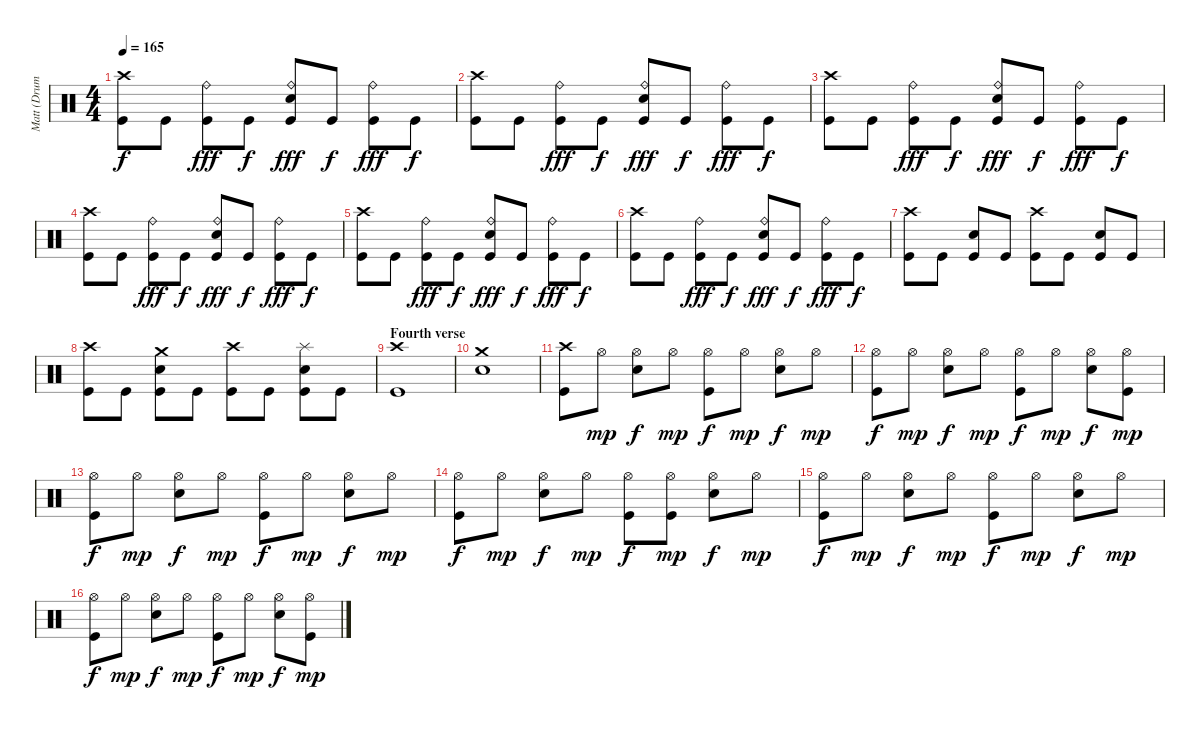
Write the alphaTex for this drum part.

\track ("Matt (Drums)" "Matt (Drum") {instrument percussion}
\staff {score}
\articulation defaults
\ts (4 4)
\tempo 165
\clef neutral
\ks c
("Crash high (hit)" "Kick (hit)").8{dy f} "Kick (hit)".8 ("Ride (bell)" "Kick (hit)").8{dy fff} "Kick (hit)".8{dy f} ("Ride (bell)" "Electric Snare (hit)" "Kick (hit)").8{dy fff} "Kick (hit)".8{dy f} ("Ride (bell)" "Kick (hit)").8{dy fff} "Kick (hit)".8{dy f} |
("Crash high (hit)" "Kick (hit)").8 "Kick (hit)".8 ("Ride (bell)" "Kick (hit)").8{dy fff} "Kick (hit)".8{dy f} ("Ride (bell)" "Electric Snare (hit)" "Kick (hit)").8{dy fff} "Kick (hit)".8{dy f} ("Ride (bell)" "Kick (hit)").8{dy fff} "Kick (hit)".8{dy f} |
("Crash high (hit)" "Kick (hit)").8 "Kick (hit)".8 ("Ride (bell)" "Kick (hit)").8{dy fff} "Kick (hit)".8{dy f} ("Ride (bell)" "Electric Snare (hit)" "Kick (hit)").8{dy fff} "Kick (hit)".8{dy f} ("Ride (bell)" "Kick (hit)").8{dy fff} "Kick (hit)".8{dy f} |
("Crash high (hit)" "Kick (hit)").8 "Kick (hit)".8 ("Ride (bell)" "Kick (hit)").8{dy fff} "Kick (hit)".8{dy f} ("Ride (bell)" "Electric Snare (hit)" "Kick (hit)").8{dy fff} "Kick (hit)".8{dy f} ("Ride (bell)" "Kick (hit)").8{dy fff} "Kick (hit)".8{dy f} |
("Crash high (hit)" "Kick (hit)").8 "Kick (hit)".8 ("Ride (bell)" "Kick (hit)").8{dy fff} "Kick (hit)".8{dy f} ("Ride (bell)" "Electric Snare (hit)" "Kick (hit)").8{dy fff} "Kick (hit)".8{dy f} ("Ride (bell)" "Kick (hit)").8{dy fff} "Kick (hit)".8{dy f} |
("Crash high (hit)" "Kick (hit)").8 "Kick (hit)".8 ("Ride (bell)" "Kick (hit)").8{dy fff} "Kick (hit)".8{dy f} ("Ride (bell)" "Electric Snare (hit)" "Kick (hit)").8{dy fff} "Kick (hit)".8{dy f} ("Ride (bell)" "Kick (hit)").8{dy fff} "Kick (hit)".8{dy f} |
("Crash high (hit)" "Kick (hit)").8 "Kick (hit)".8 ("Electric Snare (hit)" "Kick (hit)").8 "Kick (hit)".8 ("Crash high (hit)" "Kick (hit)").8 "Kick (hit)".8 ("Electric Snare (hit)" "Kick (hit)").8 "Kick (hit)".8 |
("Crash high (hit)" "Kick (hit)").8 "Kick (hit)".8 ("Crash medium (hit)" "Electric Snare (hit)" "Kick (hit)").8 "Kick (hit)".8 ("Crash high (hit)" "Kick (hit)").8 "Kick (hit)".8 ("Splash (hit)" "Electric Snare (hit)" "Kick (hit)").8 "Kick (hit)".8 |
\section ("" "Fourth verse")
("Crash high (hit)" "Kick (hit)").1 |
("Crash medium (hit)" "Electric Snare (hit)").1 |
("Crash high (hit)" "Kick (hit)").8 "Hi-Hat (open)".8{dy mp} ("Hi-Hat (open)" "Electric Snare (hit)").8{dy f} "Hi-Hat (open)".8{dy mp} ("Hi-Hat (open)" "Kick (hit)").8{dy f} "Hi-Hat (open)".8{dy mp} ("Hi-Hat (open)" "Electric Snare (hit)").8{dy f} "Hi-Hat (open)".8{dy mp} |
("Hi-Hat (open)" "Kick (hit)").8{dy f} "Hi-Hat (open)".8{dy mp} ("Hi-Hat (open)" "Electric Snare (hit)").8{dy f} "Hi-Hat (open)".8{dy mp} ("Hi-Hat (open)" "Kick (hit)").8{dy f} "Hi-Hat (open)".8{dy mp} ("Hi-Hat (open)" "Electric Snare (hit)").8{dy f} ("Hi-Hat (open)" "Kick (hit)").8{dy mp} |
("Hi-Hat (open)" "Kick (hit)").8{dy f} "Hi-Hat (open)".8{dy mp} ("Hi-Hat (open)" "Electric Snare (hit)").8{dy f} "Hi-Hat (open)".8{dy mp} ("Hi-Hat (open)" "Kick (hit)").8{dy f} "Hi-Hat (open)".8{dy mp} ("Hi-Hat (open)" "Electric Snare (hit)").8{dy f} "Hi-Hat (open)".8{dy mp} |
("Hi-Hat (open)" "Kick (hit)").8{dy f} "Hi-Hat (open)".8{dy mp} ("Hi-Hat (open)" "Electric Snare (hit)").8{dy f} "Hi-Hat (open)".8{dy mp} ("Hi-Hat (open)" "Kick (hit)").8{dy f} ("Hi-Hat (open)" "Kick (hit)").8{dy mp} ("Hi-Hat (open)" "Electric Snare (hit)").8{dy f} "Hi-Hat (open)".8{dy mp} |
("Hi-Hat (open)" "Kick (hit)").8{dy f} "Hi-Hat (open)".8{dy mp} ("Hi-Hat (open)" "Electric Snare (hit)").8{dy f} "Hi-Hat (open)".8{dy mp} ("Hi-Hat (open)" "Kick (hit)").8{dy f} "Hi-Hat (open)".8{dy mp} ("Hi-Hat (open)" "Electric Snare (hit)").8{dy f} "Hi-Hat (open)".8{dy mp} |
("Hi-Hat (open)" "Kick (hit)").8{dy f} "Hi-Hat (open)".8{dy mp} ("Hi-Hat (open)" "Electric Snare (hit)").8{dy f} "Hi-Hat (open)".8{dy mp} ("Hi-Hat (open)" "Kick (hit)").8{dy f} "Hi-Hat (open)".8{dy mp} ("Hi-Hat (open)" "Electric Snare (hit)").8{dy f} ("Hi-Hat (open)" "Kick (hit)").8{dy mp}
